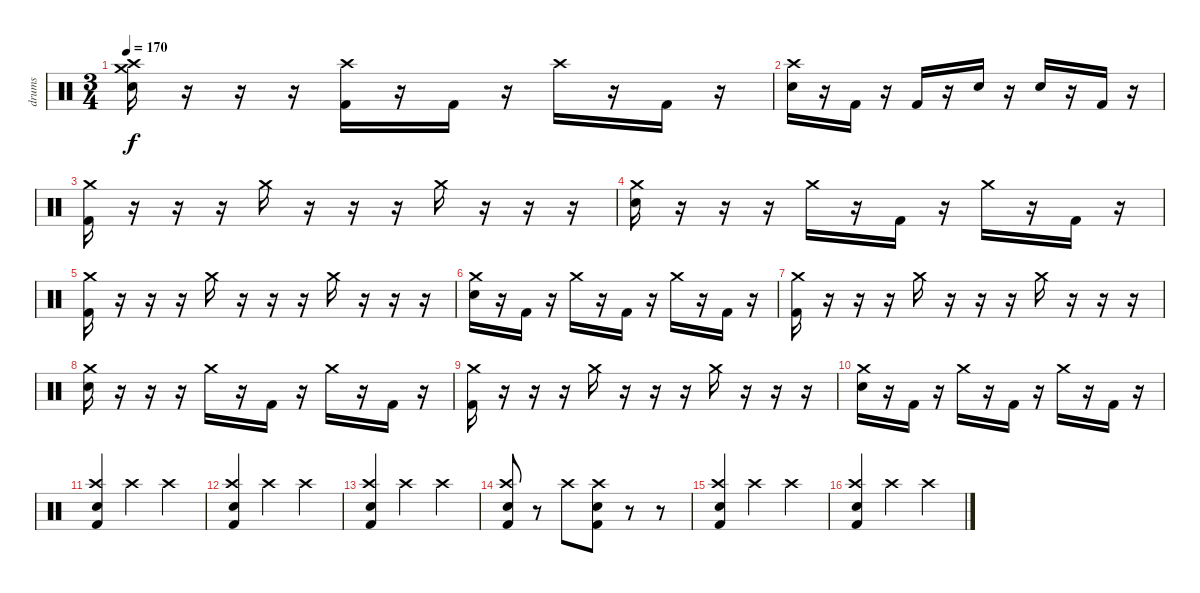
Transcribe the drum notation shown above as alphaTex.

\track ("drums" "drums") {instrument percussion}
\staff {score}
\articulation defaults
\ts (3 4)
\tempo 170
\clef neutral
\ks c
("Snare (hit) 2" "Crash high (hit)" "Crash medium (hit)").16{dy f} r.16 r.16 r.16 ("Crash high (hit)" "Kick (hit) 2").16 r.16 "Kick (hit) 2".16 r.16 "Crash high (hit)".16 r.16 "Kick (hit) 2".16 r.16 |
("Snare (hit) 2" "Crash high (hit)").16 r.16 "Kick (hit) 2".16 r.16 "Kick (hit) 2".16 r.16 "Snare (hit) 2".16 r.16 "Snare (hit) 2".16 r.16 "Kick (hit) 2".16 r.16 |
("Kick (hit) 2" "Crash medium (hit)").16 r.16 r.16 r.16 "Crash medium (hit)".16 r.16 r.16 r.16 "Crash medium (hit)".16 r.16 r.16 r.16 |
("Snare (hit) 2" "Crash medium (hit)").16 r.16 r.16 r.16 "Crash medium (hit)".16 r.16 "Kick (hit) 2".16 r.16 "Crash medium (hit)".16 r.16 "Kick (hit) 2".16 r.16 |
("Kick (hit) 2" "Crash medium (hit)").16 r.16 r.16 r.16 "Crash medium (hit)".16 r.16 r.16 r.16 "Crash medium (hit)".16 r.16 r.16 r.16 |
("Snare (hit) 2" "Crash medium (hit)").16 r.16 "Kick (hit) 2".16 r.16 "Crash medium (hit)".16 r.16 "Kick (hit) 2".16 r.16 "Crash medium (hit)".16 r.16 "Kick (hit) 2".16 r.16 |
("Kick (hit) 2" "Crash medium (hit)").16 r.16 r.16 r.16 "Crash medium (hit)".16 r.16 r.16 r.16 "Crash medium (hit)".16 r.16 r.16 r.16 |
("Snare (hit) 2" "Crash medium (hit)").16 r.16 r.16 r.16 "Crash medium (hit)".16 r.16 "Kick (hit) 2".16 r.16 "Crash medium (hit)".16 r.16 "Kick (hit) 2".16 r.16 |
("Kick (hit) 2" "Crash medium (hit)").16 r.16 r.16 r.16 "Crash medium (hit)".16 r.16 r.16 r.16 "Crash medium (hit)".16 r.16 r.16 r.16 |
("Snare (hit) 2" "Crash medium (hit)").16 r.16 "Kick (hit) 2".16 r.16 "Crash medium (hit)".16 r.16 "Kick (hit) 2".16 r.16 "Crash medium (hit)".16 r.16 "Kick (hit) 2".16 r.16 |
("Kick (hit) 2" "Snare (hit) 2" "Crash high (hit)").4 "Crash high (hit)".4 "Crash high (hit)".4 |
("Kick (hit) 2" "Snare (hit) 2" "Crash high (hit)").4 "Crash high (hit)".4 "Crash high (hit)".4 |
("Kick (hit) 2" "Snare (hit) 2" "Crash high (hit)").4 "Crash high (hit)".4 "Crash high (hit)".4 |
("Kick (hit) 2" "Crash high (hit)" "Snare (hit) 2").8 r.8 "Crash high (hit)".8 ("Kick (hit) 2" "Crash high (hit)" "Snare (hit) 2").8 r.8 r.8 |
("Kick (hit) 2" "Snare (hit) 2" "Crash high (hit)").4 "Crash high (hit)".4 "Crash high (hit)".4 |
("Kick (hit) 2" "Snare (hit) 2" "Crash high (hit)").4 "Crash high (hit)".4 "Crash high (hit)".4
